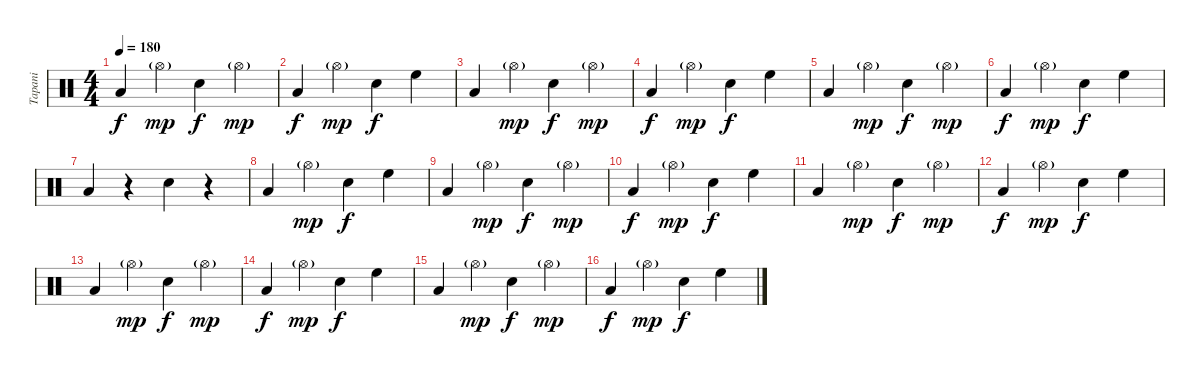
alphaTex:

\track ("Tapani" "Tapani") {instrument percussion}
\staff {score}
\articulation defaults
\ts (4 4)
\tempo 180
\clef neutral
\ks c "Low Tom (hit)".4{dy f} "Hi-Hat (open)"{g}.4{dy mp} "Electric Snare (hit)".4{dy f} "Hi-Hat (open)"{g}.4{dy mp}
|
"Low Tom (hit)".4{dy f} "Hi-Hat (open)"{g}.4{dy mp} "Electric Snare (hit)".4{dy f} "High Floor Tom (hit)".4 |
"Low Tom (hit)".4 "Hi-Hat (open)"{g}.4{dy mp} "Electric Snare (hit)".4{dy f} "Hi-Hat (open)"{g}.4{dy mp} |
"Low Tom (hit)".4{dy f} "Hi-Hat (open)"{g}.4{dy mp} "Electric Snare (hit)".4{dy f} "High Floor Tom (hit)".4 |
"Low Tom (hit)".4 "Hi-Hat (open)"{g}.4{dy mp} "Electric Snare (hit)".4{dy f} "Hi-Hat (open)"{g}.4{dy mp} |
"Low Tom (hit)".4{dy f} "Hi-Hat (open)"{g}.4{dy mp} "Electric Snare (hit)".4{dy f} "High Floor Tom (hit)".4 |
"Low Tom (hit)".4 r.4 "Electric Snare (hit)".4 r.4 |
"Low Tom (hit)".4 "Hi-Hat (open)"{g}.4{dy mp} "Electric Snare (hit)".4{dy f} "High Floor Tom (hit)".4 |
"Low Tom (hit)".4 "Hi-Hat (open)"{g}.4{dy mp} "Electric Snare (hit)".4{dy f} "Hi-Hat (open)"{g}.4{dy mp} |
"Low Tom (hit)".4{dy f} "Hi-Hat (open)"{g}.4{dy mp} "Electric Snare (hit)".4{dy f} "High Floor Tom (hit)".4 |
"Low Tom (hit)".4 "Hi-Hat (open)"{g}.4{dy mp} "Electric Snare (hit)".4{dy f} "Hi-Hat (open)"{g}.4{dy mp} |
"Low Tom (hit)".4{dy f} "Hi-Hat (open)"{g}.4{dy mp} "Electric Snare (hit)".4{dy f} "High Floor Tom (hit)".4 |
"Low Tom (hit)".4 "Hi-Hat (open)"{g}.4{dy mp} "Electric Snare (hit)".4{dy f} "Hi-Hat (open)"{g}.4{dy mp} |
"Low Tom (hit)".4{dy f} "Hi-Hat (open)"{g}.4{dy mp} "Electric Snare (hit)".4{dy f} "High Floor Tom (hit)".4 |
"Low Tom (hit)".4 "Hi-Hat (open)"{g}.4{dy mp} "Electric Snare (hit)".4{dy f} "Hi-Hat (open)"{g}.4{dy mp} |
"Low Tom (hit)".4{dy f} "Hi-Hat (open)"{g}.4{dy mp} "Electric Snare (hit)".4{dy f} "High Floor Tom (hit)".4
